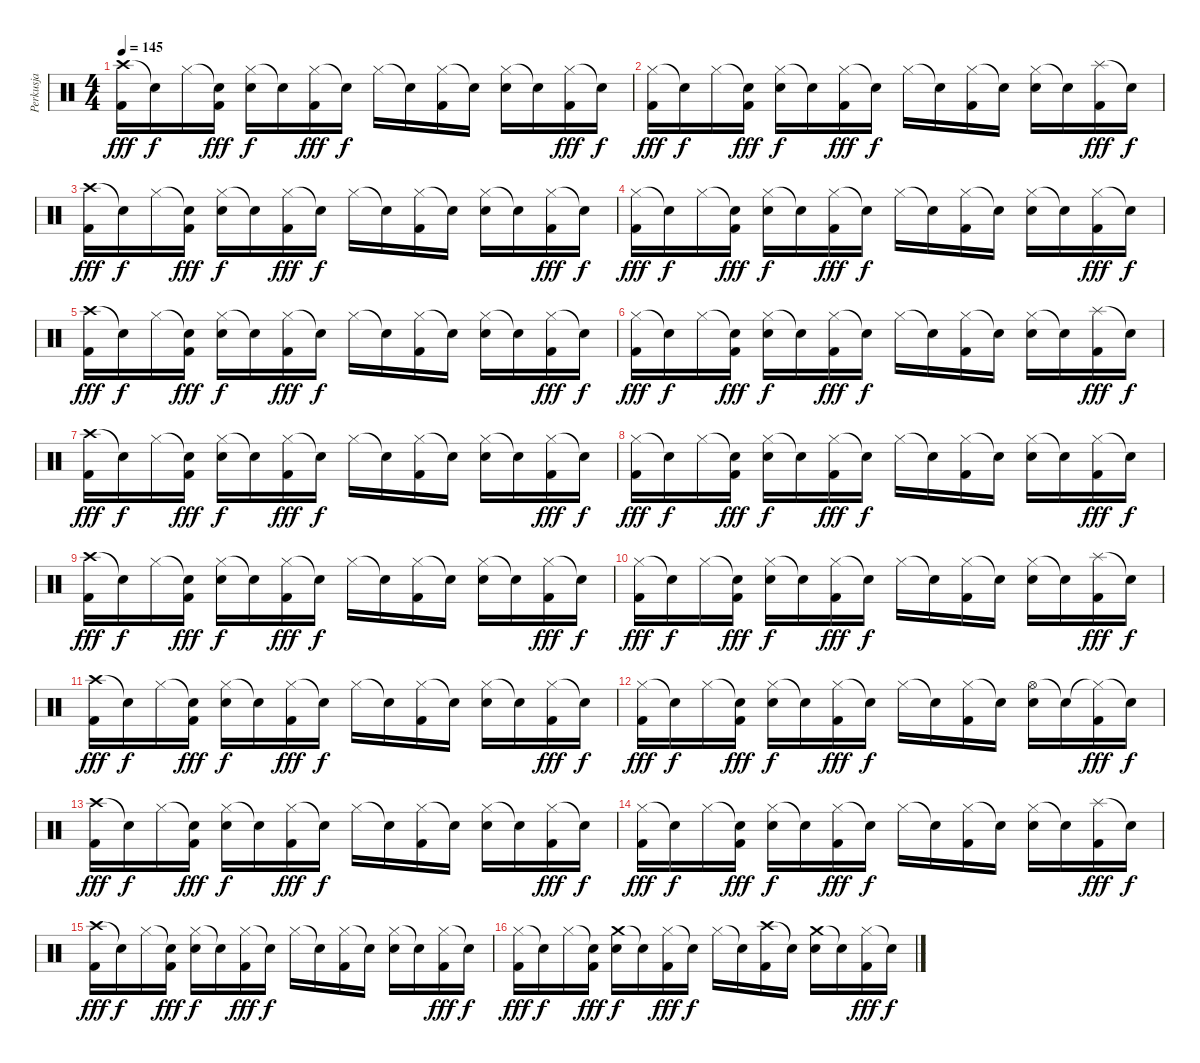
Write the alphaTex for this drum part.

\track ("Perkusja" "Perkusja") {instrument percussion}
\staff {score}
\articulation defaults
\ts (4 4)
\tempo 145
\clef neutral
\ks c
("Crash high (hit)" "Kick (hit) 2").16{dy fff} "Snare (hit)"{t}.16{dy f} "Hi-Hat (closed)".16 ("Snare (hit)"{t} "Kick (hit) 2").16{dy fff} ("Hi-Hat (closed)" "Electric Snare (hit)").16{dy f} "Snare (hit)"{t}.16 ("Hi-Hat (closed)" "Kick (hit) 2").16{dy fff} "Snare (hit)"{t}.16{dy f} "Hi-Hat (closed)".16 "Snare (hit)"{t}.16 ("Hi-Hat (closed)" "Kick (hit) 2").16 "Snare (hit)"{t}.16 ("Hi-Hat (closed)" "Electric Snare (hit)").16 "Snare (hit)"{t}.16 ("Hi-Hat (closed)" "Kick (hit) 2").16{dy fff} "Snare (hit)"{t}.16{dy f} |
("Hi-Hat (closed)" "Kick (hit) 2").16{dy fff} "Snare (hit)"{t}.16{dy f} "Hi-Hat (closed)".16 ("Snare (hit)"{t} "Kick (hit) 2").16{dy fff} ("Hi-Hat (closed)" "Electric Snare (hit)").16{dy f} "Snare (hit)"{t}.16 ("Hi-Hat (closed)" "Kick (hit) 2").16{dy fff} "Snare (hit)"{t}.16{dy f} "Hi-Hat (closed)".16 "Snare (hit)"{t}.16 ("Hi-Hat (closed)" "Kick (hit) 2").16 "Snare (hit)"{t}.16 ("Hi-Hat (closed)" "Electric Snare (hit)").16 "Snare (hit)"{t}.16 ("Splash (hit)" "Kick (hit) 2").16{dy fff} "Snare (hit)"{t}.16{dy f} |
("Crash high (hit)" "Kick (hit) 2").16{dy fff} "Snare (hit)"{t}.16{dy f} "Hi-Hat (closed)".16 ("Snare (hit)"{t} "Kick (hit) 2").16{dy fff} ("Hi-Hat (closed)" "Electric Snare (hit)").16{dy f} "Snare (hit)"{t}.16 ("Hi-Hat (closed)" "Kick (hit) 2").16{dy fff} "Snare (hit)"{t}.16{dy f} "Hi-Hat (closed)".16 "Snare (hit)"{t}.16 ("Hi-Hat (closed)" "Kick (hit) 2").16 "Snare (hit)"{t}.16 ("Hi-Hat (closed)" "Electric Snare (hit)").16 "Snare (hit)"{t}.16 ("Hi-Hat (closed)" "Kick (hit) 2").16{dy fff} "Snare (hit)"{t}.16{dy f} |
("Hi-Hat (closed)" "Kick (hit) 2").16{dy fff} "Snare (hit)"{t}.16{dy f} "Hi-Hat (closed)".16 ("Snare (hit)"{t} "Kick (hit) 2").16{dy fff} ("Hi-Hat (closed)" "Electric Snare (hit)").16{dy f} "Snare (hit)"{t}.16 ("Hi-Hat (closed)" "Kick (hit) 2").16{dy fff} "Snare (hit)"{t}.16{dy f} "Hi-Hat (closed)".16 "Snare (hit)"{t}.16 ("Hi-Hat (closed)" "Kick (hit) 2").16 "Snare (hit)"{t}.16 ("Hi-Hat (closed)" "Electric Snare (hit)").16 "Snare (hit)"{t}.16 ("Hi-Hat (closed)" "Kick (hit) 2").16{dy fff} "Snare (hit)"{t}.16{dy f} |
("Crash high (hit)" "Kick (hit) 2").16{dy fff} "Snare (hit)"{t}.16{dy f} "Hi-Hat (closed)".16 ("Snare (hit)"{t} "Kick (hit) 2").16{dy fff} ("Hi-Hat (closed)" "Electric Snare (hit)").16{dy f} "Snare (hit)"{t}.16 ("Hi-Hat (closed)" "Kick (hit) 2").16{dy fff} "Snare (hit)"{t}.16{dy f} "Hi-Hat (closed)".16 "Snare (hit)"{t}.16 ("Hi-Hat (closed)" "Kick (hit) 2").16 "Snare (hit)"{t}.16 ("Hi-Hat (closed)" "Electric Snare (hit)").16 "Snare (hit)"{t}.16 ("Hi-Hat (closed)" "Kick (hit) 2").16{dy fff} "Snare (hit)"{t}.16{dy f} |
("Hi-Hat (closed)" "Kick (hit) 2").16{dy fff} "Snare (hit)"{t}.16{dy f} "Hi-Hat (closed)".16 ("Snare (hit)"{t} "Kick (hit) 2").16{dy fff} ("Hi-Hat (closed)" "Electric Snare (hit)").16{dy f} "Snare (hit)"{t}.16 ("Hi-Hat (closed)" "Kick (hit) 2").16{dy fff} "Snare (hit)"{t}.16{dy f} "Hi-Hat (closed)".16 "Snare (hit)"{t}.16 ("Hi-Hat (closed)" "Kick (hit) 2").16 "Snare (hit)"{t}.16 ("Hi-Hat (closed)" "Electric Snare (hit)").16 "Snare (hit)"{t}.16 ("Splash (hit)" "Kick (hit) 2").16{dy fff} "Snare (hit)"{t}.16{dy f} |
("Crash high (hit)" "Kick (hit) 2").16{dy fff} "Snare (hit)"{t}.16{dy f} "Hi-Hat (closed)".16 ("Snare (hit)"{t} "Kick (hit) 2").16{dy fff} ("Hi-Hat (closed)" "Electric Snare (hit)").16{dy f} "Snare (hit)"{t}.16 ("Hi-Hat (closed)" "Kick (hit) 2").16{dy fff} "Snare (hit)"{t}.16{dy f} "Hi-Hat (closed)".16 "Snare (hit)"{t}.16 ("Hi-Hat (closed)" "Kick (hit) 2").16 "Snare (hit)"{t}.16 ("Hi-Hat (closed)" "Electric Snare (hit)").16 "Snare (hit)"{t}.16 ("Hi-Hat (closed)" "Kick (hit) 2").16{dy fff} "Snare (hit)"{t}.16{dy f} |
("Hi-Hat (closed)" "Kick (hit) 2").16{dy fff} "Snare (hit)"{t}.16{dy f} "Hi-Hat (closed)".16 ("Snare (hit)"{t} "Kick (hit) 2").16{dy fff} ("Hi-Hat (closed)" "Electric Snare (hit)").16{dy f} "Snare (hit)"{t}.16 ("Hi-Hat (closed)" "Kick (hit) 2").16{dy fff} "Snare (hit)"{t}.16{dy f} "Hi-Hat (closed)".16 "Snare (hit)"{t}.16 ("Hi-Hat (closed)" "Kick (hit) 2").16 "Snare (hit)"{t}.16 ("Hi-Hat (closed)" "Electric Snare (hit)").16 "Snare (hit)"{t}.16 ("Hi-Hat (closed)" "Kick (hit) 2").16{dy fff} "Snare (hit)"{t}.16{dy f} |
("Crash high (hit)" "Kick (hit) 2").16{dy fff} "Snare (hit)"{t}.16{dy f} "Hi-Hat (closed)".16 ("Snare (hit)"{t} "Kick (hit) 2").16{dy fff} ("Hi-Hat (closed)" "Electric Snare (hit)").16{dy f} "Snare (hit)"{t}.16 ("Hi-Hat (closed)" "Kick (hit) 2").16{dy fff} "Snare (hit)"{t}.16{dy f} "Hi-Hat (closed)".16 "Snare (hit)"{t}.16 ("Hi-Hat (closed)" "Kick (hit) 2").16 "Snare (hit)"{t}.16 ("Hi-Hat (closed)" "Electric Snare (hit)").16 "Snare (hit)"{t}.16 ("Hi-Hat (closed)" "Kick (hit) 2").16{dy fff} "Snare (hit)"{t}.16{dy f} |
("Hi-Hat (closed)" "Kick (hit) 2").16{dy fff} "Snare (hit)"{t}.16{dy f} "Hi-Hat (closed)".16 ("Snare (hit)"{t} "Kick (hit) 2").16{dy fff} ("Hi-Hat (closed)" "Electric Snare (hit)").16{dy f} "Snare (hit)"{t}.16 ("Hi-Hat (closed)" "Kick (hit) 2").16{dy fff} "Snare (hit)"{t}.16{dy f} "Hi-Hat (closed)".16 "Snare (hit)"{t}.16 ("Hi-Hat (closed)" "Kick (hit) 2").16 "Snare (hit)"{t}.16 ("Hi-Hat (closed)" "Electric Snare (hit)").16 "Snare (hit)"{t}.16 ("Splash (hit)" "Kick (hit) 2").16{dy fff} "Snare (hit)"{t}.16{dy f} |
("Crash high (hit)" "Kick (hit) 2").16{dy fff} "Snare (hit)"{t}.16{dy f} "Hi-Hat (closed)".16 ("Snare (hit)"{t} "Kick (hit) 2").16{dy fff} ("Hi-Hat (closed)" "Electric Snare (hit)").16{dy f} "Snare (hit)"{t}.16 ("Hi-Hat (closed)" "Kick (hit) 2").16{dy fff} "Snare (hit)"{t}.16{dy f} "Hi-Hat (closed)".16 "Snare (hit)"{t}.16 ("Hi-Hat (closed)" "Kick (hit) 2").16 "Snare (hit)"{t}.16 ("Hi-Hat (closed)" "Electric Snare (hit)").16 "Snare (hit)"{t}.16 ("Hi-Hat (closed)" "Kick (hit) 2").16{dy fff} "Snare (hit)"{t}.16{dy f} |
("Hi-Hat (closed)" "Kick (hit) 2").16{dy fff} "Snare (hit)"{t}.16{dy f} "Hi-Hat (closed)".16 ("Snare (hit)"{t} "Kick (hit) 2").16{dy fff} ("Hi-Hat (closed)" "Electric Snare (hit)").16{dy f} "Snare (hit)"{t}.16 ("Hi-Hat (closed)" "Kick (hit) 2").16{dy fff} "Snare (hit)"{t}.16{dy f} "Hi-Hat (closed)".16 "Snare (hit)"{t}.16 ("Hi-Hat (closed)" "Kick (hit) 2").16 "Snare (hit)"{t}.16 ("Hi-Hat (open)" "Electric Snare (hit)").16 "Snare (hit)"{t}.16 ("Hi-Hat (closed)"{t} "Kick (hit) 2").16{dy fff} "Snare (hit)"{t}.16{dy f} |
("Crash high (hit)" "Kick (hit) 2").16{dy fff} "Snare (hit)"{t}.16{dy f} "Hi-Hat (closed)".16 ("Snare (hit)"{t} "Kick (hit) 2").16{dy fff} ("Hi-Hat (closed)" "Electric Snare (hit)").16{dy f} "Snare (hit)"{t}.16 ("Hi-Hat (closed)" "Kick (hit) 2").16{dy fff} "Snare (hit)"{t}.16{dy f} "Hi-Hat (closed)".16 "Snare (hit)"{t}.16 ("Hi-Hat (closed)" "Kick (hit) 2").16 "Snare (hit)"{t}.16 ("Hi-Hat (closed)" "Electric Snare (hit)").16 "Snare (hit)"{t}.16 ("Hi-Hat (closed)" "Kick (hit) 2").16{dy fff} "Snare (hit)"{t}.16{dy f} |
("Hi-Hat (closed)" "Kick (hit) 2").16{dy fff} "Snare (hit)"{t}.16{dy f} "Hi-Hat (closed)".16 ("Snare (hit)"{t} "Kick (hit) 2").16{dy fff} ("Hi-Hat (closed)" "Electric Snare (hit)").16{dy f} "Snare (hit)"{t}.16 ("Hi-Hat (closed)" "Kick (hit) 2").16{dy fff} "Snare (hit)"{t}.16{dy f} "Hi-Hat (closed)".16 "Snare (hit)"{t}.16 ("Hi-Hat (closed)" "Kick (hit) 2").16 "Snare (hit)"{t}.16 ("Hi-Hat (closed)" "Electric Snare (hit)").16 "Snare (hit)"{t}.16 ("Splash (hit)" "Kick (hit) 2").16{dy fff} "Snare (hit)"{t}.16{dy f} |
("Crash high (hit)" "Kick (hit) 2").16{dy fff} "Snare (hit)"{t}.16{dy f} "Hi-Hat (closed)".16 ("Snare (hit)"{t} "Kick (hit) 2").16{dy fff} ("Hi-Hat (closed)" "Electric Snare (hit)").16{dy f} "Snare (hit)"{t}.16 ("Hi-Hat (closed)" "Kick (hit) 2").16{dy fff} "Snare (hit)"{t}.16{dy f} "Hi-Hat (closed)".16 "Snare (hit)"{t}.16 ("Hi-Hat (closed)" "Kick (hit) 2").16 "Snare (hit)"{t}.16 ("Hi-Hat (closed)" "Electric Snare (hit)").16 "Snare (hit)"{t}.16 ("Hi-Hat (closed)" "Kick (hit) 2").16{dy fff} "Snare (hit)"{t}.16{dy f} |
("Hi-Hat (closed)" "Kick (hit) 2").16{dy fff} "Snare (hit)"{t}.16{dy f} "Hi-Hat (closed)".16 ("Snare (hit)"{t} "Kick (hit) 2").16{dy fff} ("Crash medium (hit)" "Electric Snare (hit)").16{dy f} "Snare (hit)"{t}.16 ("Hi-Hat (closed)" "Kick (hit) 2").16{dy fff} "Snare (hit)"{t}.16{dy f} "Hi-Hat (closed)".16 "Snare (hit)"{t}.16 ("Crash high (hit)" "Kick (hit) 2").16 "Snare (hit)"{t}.16 ("Crash medium (hit)" "Electric Snare (hit)").16 "Snare (hit)"{t}.16 ("Hi-Hat (closed)" "Kick (hit) 2").16{dy fff} "Snare (hit)"{t}.16{dy f}
